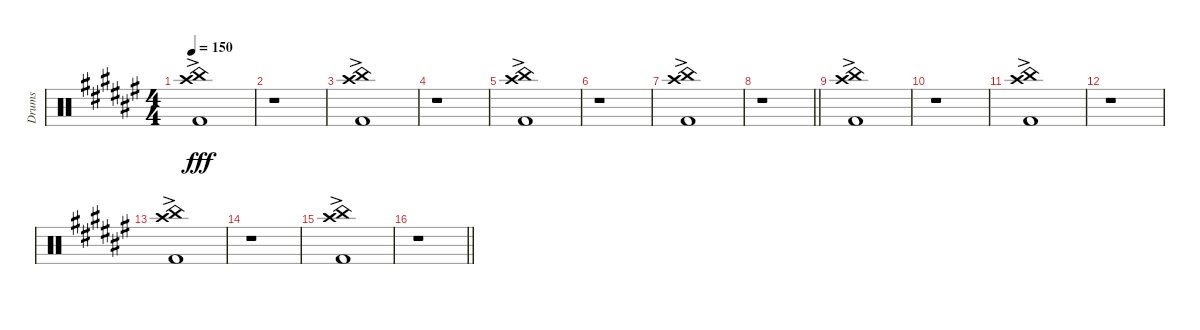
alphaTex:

\track ("Drums" "Drums") {instrument percussion}
\staff {score}
\articulation defaults
\ts (4 4)
\tempo 150
\clef neutral
\ks d#minor
("Kick (hit) 2" "Crash high (hit)" "China (hit)"{ac}).1{dy fff} |
r.1 |
("Kick (hit) 2" "Crash high (hit)" "China (hit)"{ac}).1 |
r.1 |
("Kick (hit) 2" "Crash high (hit)" "China (hit)"{ac}).1 |
r.1 |
("Kick (hit) 2" "Crash high (hit)" "China (hit)"{ac}).1 |
\barLineRight lightlight
r.1 |
("Kick (hit) 2" "Crash high (hit)" "China (hit)"{ac}).1 |
r.1 |
("Kick (hit) 2" "Crash high (hit)" "China (hit)"{ac}).1 |
r.1 |
("Kick (hit) 2" "Crash high (hit)" "China (hit)"{ac}).1 |
r.1 |
("Kick (hit) 2" "Crash high (hit)" "China (hit)"{ac}).1 |
\barLineRight lightlight
r.1
